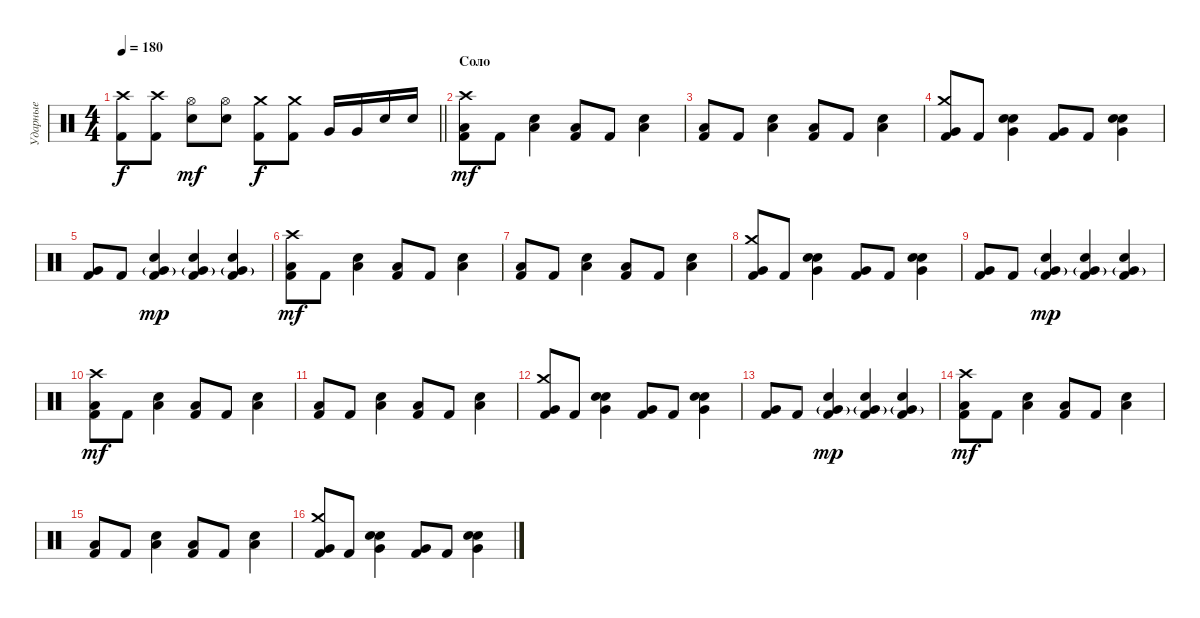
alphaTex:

\track ("Ударные" "Ударные") {instrument percussion}
\staff {score}
\articulation defaults
\ts (4 4)
\tempo 180
\clef neutral
\barLineRight lightlight
\ks c
("Crash high (hit)" "Kick (hit) 2").8{dy f} ("Crash high (hit)" "Kick (hit) 2").8 ("Hi-Hat (open)" "Electric Snare (hit)").8{dy mf} ("Hi-Hat (open)" "Electric Snare (hit)").8 ("Crash medium (hit)" "Kick (hit) 2").8{dy f} ("Crash medium (hit)" "Kick (hit) 2").8 "Very Low Tom (hit)".16 "Very Low Tom (hit)".16 "Electric Snare (hit)".16 "Electric Snare (hit)".16 |
\section ("" "Соло")
("Crash high (hit)" "Kick (hit) 2" "Low Floor Tom (hit)").8{dy mf} "Kick (hit) 2".8 ("Electric Snare (hit)" "Low Floor Tom (hit)").4 ("Kick (hit) 2" "Low Floor Tom (hit)").8 "Kick (hit) 2".8 ("Electric Snare (hit)" "Low Floor Tom (hit)").4 |
("Kick (hit) 2" "Low Floor Tom (hit)").8 "Kick (hit) 2".8 ("Electric Snare (hit)" "Low Floor Tom (hit)").4 ("Kick (hit) 2" "Low Floor Tom (hit)").8 "Kick (hit) 2".8 ("Electric Snare (hit)" "Low Floor Tom (hit)").4 |
("Crash medium (hit)" "Kick (hit) 2" "Very Low Tom (hit)").8 "Kick (hit) 2".8 ("Electric Snare (hit)" "Snare (hit) 2" "Very Low Tom (hit)").4 ("Kick (hit) 2" "Very Low Tom (hit)").8 "Kick (hit) 2".8 ("Electric Snare (hit)" "Snare (hit) 2" "Very Low Tom (hit)").4 |
("Kick (hit) 2" "Very Low Tom (hit)").8 "Kick (hit) 2".8 ("Electric Snare (hit)" "Kick (hit) 2" "Very Low Tom (hit)"{g}).4{dy mp} ("Electric Snare (hit)" "Kick (hit) 2" "Very Low Tom (hit)"{g}).4 ("Electric Snare (hit)" "Kick (hit) 2" "Very Low Tom (hit)"{g}).4 |
("Crash high (hit)" "Kick (hit) 2" "Low Floor Tom (hit)").8{dy mf} "Kick (hit) 2".8 ("Electric Snare (hit)" "Low Floor Tom (hit)").4 ("Kick (hit) 2" "Low Floor Tom (hit)").8 "Kick (hit) 2".8 ("Electric Snare (hit)" "Low Floor Tom (hit)").4 |
("Kick (hit) 2" "Low Floor Tom (hit)").8 "Kick (hit) 2".8 ("Electric Snare (hit)" "Low Floor Tom (hit)").4 ("Kick (hit) 2" "Low Floor Tom (hit)").8 "Kick (hit) 2".8 ("Electric Snare (hit)" "Low Floor Tom (hit)").4 |
("Crash medium (hit)" "Kick (hit) 2" "Very Low Tom (hit)").8 "Kick (hit) 2".8 ("Electric Snare (hit)" "Snare (hit) 2" "Very Low Tom (hit)").4 ("Kick (hit) 2" "Very Low Tom (hit)").8 "Kick (hit) 2".8 ("Electric Snare (hit)" "Snare (hit) 2" "Very Low Tom (hit)").4 |
("Kick (hit) 2" "Very Low Tom (hit)").8 "Kick (hit) 2".8 ("Electric Snare (hit)" "Kick (hit) 2" "Very Low Tom (hit)"{g}).4{dy mp} ("Electric Snare (hit)" "Kick (hit) 2" "Very Low Tom (hit)"{g}).4 ("Electric Snare (hit)" "Kick (hit) 2" "Very Low Tom (hit)"{g}).4 |
("Crash high (hit)" "Kick (hit) 2" "Low Floor Tom (hit)").8{dy mf} "Kick (hit) 2".8 ("Electric Snare (hit)" "Low Floor Tom (hit)").4 ("Kick (hit) 2" "Low Floor Tom (hit)").8 "Kick (hit) 2".8 ("Electric Snare (hit)" "Low Floor Tom (hit)").4 |
("Kick (hit) 2" "Low Floor Tom (hit)").8 "Kick (hit) 2".8 ("Electric Snare (hit)" "Low Floor Tom (hit)").4 ("Kick (hit) 2" "Low Floor Tom (hit)").8 "Kick (hit) 2".8 ("Electric Snare (hit)" "Low Floor Tom (hit)").4 |
("Crash medium (hit)" "Kick (hit) 2" "Very Low Tom (hit)").8 "Kick (hit) 2".8 ("Electric Snare (hit)" "Snare (hit) 2" "Very Low Tom (hit)").4 ("Kick (hit) 2" "Very Low Tom (hit)").8 "Kick (hit) 2".8 ("Electric Snare (hit)" "Snare (hit) 2" "Very Low Tom (hit)").4 |
("Kick (hit) 2" "Very Low Tom (hit)").8 "Kick (hit) 2".8 ("Electric Snare (hit)" "Kick (hit) 2" "Very Low Tom (hit)"{g}).4{dy mp} ("Electric Snare (hit)" "Kick (hit) 2" "Very Low Tom (hit)"{g}).4 ("Electric Snare (hit)" "Kick (hit) 2" "Very Low Tom (hit)"{g}).4 |
("Crash high (hit)" "Kick (hit) 2" "Low Floor Tom (hit)").8{dy mf} "Kick (hit) 2".8 ("Electric Snare (hit)" "Low Floor Tom (hit)").4 ("Kick (hit) 2" "Low Floor Tom (hit)").8 "Kick (hit) 2".8 ("Electric Snare (hit)" "Low Floor Tom (hit)").4 |
("Kick (hit) 2" "Low Floor Tom (hit)").8 "Kick (hit) 2".8 ("Electric Snare (hit)" "Low Floor Tom (hit)").4 ("Kick (hit) 2" "Low Floor Tom (hit)").8 "Kick (hit) 2".8 ("Electric Snare (hit)" "Low Floor Tom (hit)").4 |
("Crash medium (hit)" "Kick (hit) 2" "Very Low Tom (hit)").8 "Kick (hit) 2".8 ("Electric Snare (hit)" "Snare (hit) 2" "Very Low Tom (hit)").4 ("Kick (hit) 2" "Very Low Tom (hit)").8 "Kick (hit) 2".8 ("Electric Snare (hit)" "Snare (hit) 2" "Very Low Tom (hit)").4
